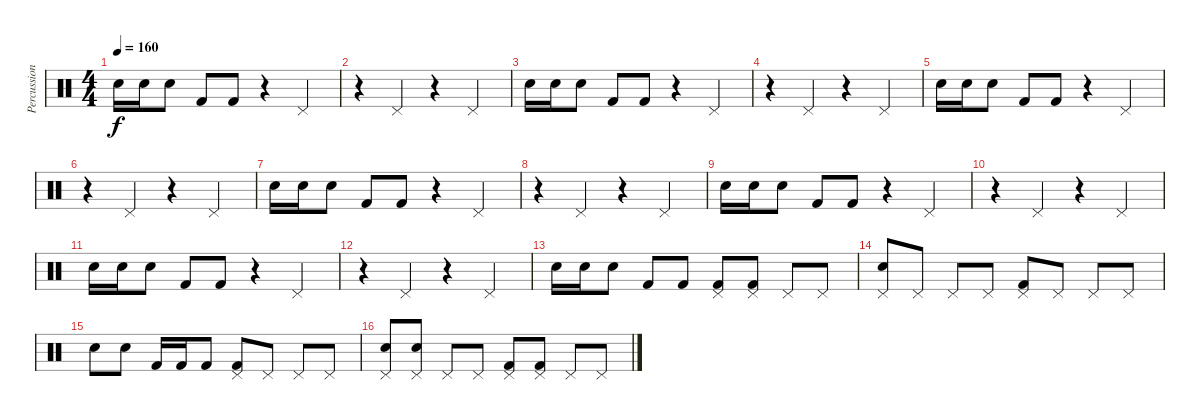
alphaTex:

\track ("Percussion" "Percussion") {instrument percussion}
\staff {score}
\articulation defaults
\ts (4 4)
\tempo 160
\clef neutral
\ks c "Snare (hit) 2".16{dy f} "Snare (hit) 2".16 "Snare (hit) 2".8 "Kick (hit) 2".8 "Kick (hit) 2".8
r.4 "Pedal Hi-Hat (hit)".4 |
r.4 "Pedal Hi-Hat (hit)".4 r.4 "Pedal Hi-Hat (hit)".4 |
"Snare (hit) 2".16 "Snare (hit) 2".16 "Snare (hit) 2".8 "Kick (hit) 2".8 "Kick (hit) 2".8 r.4 "Pedal Hi-Hat (hit)".4 |
r.4 "Pedal Hi-Hat (hit)".4 r.4 "Pedal Hi-Hat (hit)".4 |
"Snare (hit) 2".16 "Snare (hit) 2".16 "Snare (hit) 2".8 "Kick (hit) 2".8 "Kick (hit) 2".8 r.4 "Pedal Hi-Hat (hit)".4 |
r.4 "Pedal Hi-Hat (hit)".4 r.4 "Pedal Hi-Hat (hit)".4 |
"Snare (hit) 2".16 "Snare (hit) 2".16 "Snare (hit) 2".8 "Kick (hit) 2".8 "Kick (hit) 2".8 r.4 "Pedal Hi-Hat (hit)".4 |
r.4 "Pedal Hi-Hat (hit)".4 r.4 "Pedal Hi-Hat (hit)".4 |
"Snare (hit) 2".16 "Snare (hit) 2".16 "Snare (hit) 2".8 "Kick (hit) 2".8 "Kick (hit) 2".8 r.4 "Pedal Hi-Hat (hit)".4 |
r.4 "Pedal Hi-Hat (hit)".4 r.4 "Pedal Hi-Hat (hit)".4 |
"Snare (hit) 2".16 "Snare (hit) 2".16 "Snare (hit) 2".8 "Kick (hit) 2".8 "Kick (hit) 2".8 r.4 "Pedal Hi-Hat (hit)".4 |
r.4 "Pedal Hi-Hat (hit)".4 r.4 "Pedal Hi-Hat (hit)".4 |
"Snare (hit) 2".16 "Snare (hit) 2".16 "Snare (hit) 2".8 "Kick (hit) 2".8 "Kick (hit) 2".8 ("Pedal Hi-Hat (hit)" "Kick (hit) 2").8 ("Pedal Hi-Hat (hit)" "Kick (hit) 2").8 "Pedal Hi-Hat (hit)".8 "Pedal Hi-Hat (hit)".8 |
("Pedal Hi-Hat (hit)" "Snare (hit) 2").8 "Pedal Hi-Hat (hit)".8 "Pedal Hi-Hat (hit)".8 "Pedal Hi-Hat (hit)".8 ("Pedal Hi-Hat (hit)" "Kick (hit) 2").8 "Pedal Hi-Hat (hit)".8 "Pedal Hi-Hat (hit)".8 "Pedal Hi-Hat (hit)".8 |
"Snare (hit) 2".8 "Snare (hit) 2".8 "Kick (hit) 2".16 "Kick (hit) 2".16 "Kick (hit) 2".8 ("Pedal Hi-Hat (hit)" "Kick (hit) 2").8 "Pedal Hi-Hat (hit)".8 "Pedal Hi-Hat (hit)".8 "Pedal Hi-Hat (hit)".8 |
("Pedal Hi-Hat (hit)" "Snare (hit) 2").8 ("Pedal Hi-Hat (hit)" "Snare (hit) 2").8 "Pedal Hi-Hat (hit)".8 "Pedal Hi-Hat (hit)".8 ("Pedal Hi-Hat (hit)" "Kick (hit) 2").8 ("Pedal Hi-Hat (hit)" "Kick (hit) 2").8 "Pedal Hi-Hat (hit)".8 "Pedal Hi-Hat (hit)".8
